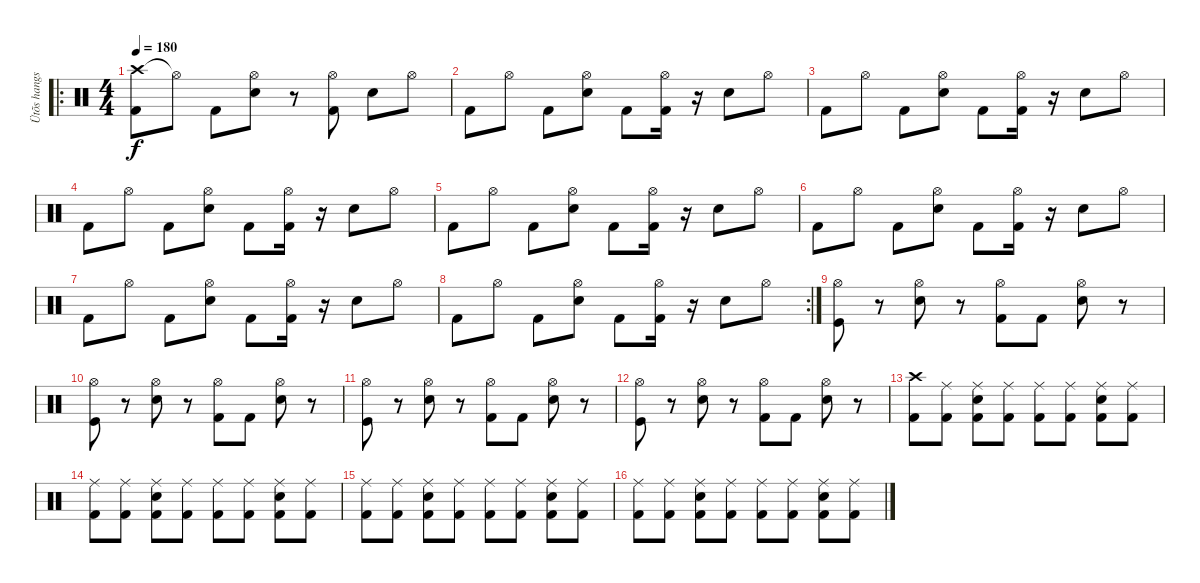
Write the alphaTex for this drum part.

\track ("Ütõs hangszer" "Ütõs hangs") {instrument percussion}
\staff {score}
\articulation defaults
\ro
\ts (4 4)
\tempo 180
\clef neutral
\ks c
("Crash high (hit)" "Kick (hit) 2").8{dy f} "Hi-Hat (open)"{t}.8 "Kick (hit) 2".8 ("Hi-Hat (open)" "Electric Snare (hit)").8 r.8 ("Hi-Hat (open)" "Kick (hit) 2").8 "Electric Snare (hit)".8 "Hi-Hat (open)".8 |
"Kick (hit) 2".8 "Hi-Hat (open)".8 "Kick (hit) 2".8 ("Hi-Hat (open)" "Electric Snare (hit)").8 "Kick (hit) 2".8 ("Hi-Hat (open)" "Kick (hit) 2").16 r.16 "Electric Snare (hit)".8 "Hi-Hat (open)".8 |
"Kick (hit) 2".8 "Hi-Hat (open)".8 "Kick (hit) 2".8 ("Hi-Hat (open)" "Electric Snare (hit)").8 "Kick (hit) 2".8 ("Hi-Hat (open)" "Kick (hit) 2").16 r.16 "Electric Snare (hit)".8 "Hi-Hat (open)".8 |
"Kick (hit) 2".8 "Hi-Hat (open)".8 "Kick (hit) 2".8 ("Hi-Hat (open)" "Electric Snare (hit)").8 "Kick (hit) 2".8 ("Hi-Hat (open)" "Kick (hit) 2").16 r.16 "Electric Snare (hit)".8 "Hi-Hat (open)".8 |
"Kick (hit) 2".8 "Hi-Hat (open)".8 "Kick (hit) 2".8 ("Hi-Hat (open)" "Electric Snare (hit)").8 "Kick (hit) 2".8 ("Hi-Hat (open)" "Kick (hit) 2").16 r.16 "Electric Snare (hit)".8 "Hi-Hat (open)".8 |
"Kick (hit) 2".8 "Hi-Hat (open)".8 "Kick (hit) 2".8 ("Hi-Hat (open)" "Electric Snare (hit)").8 "Kick (hit) 2".8 ("Hi-Hat (open)" "Kick (hit) 2").16 r.16 "Electric Snare (hit)".8 "Hi-Hat (open)".8 |
"Kick (hit) 2".8 "Hi-Hat (open)".8 "Kick (hit) 2".8 ("Hi-Hat (open)" "Electric Snare (hit)").8 "Kick (hit) 2".8 ("Hi-Hat (open)" "Kick (hit) 2").16 r.16 "Electric Snare (hit)".8 "Hi-Hat (open)".8 |
\rc 2 "Kick (hit) 2".8 "Hi-Hat (open)".8 "Kick (hit) 2".8
("Hi-Hat (open)" "Electric Snare (hit)").8 "Kick (hit) 2".8 ("Hi-Hat (open)" "Kick (hit) 2").16 r.16 "Electric Snare (hit)".8 "Hi-Hat (open)".8 |
("Hi-Hat (open)" "Kick (hit)").8 r.8 ("Hi-Hat (open)" "Electric Snare (hit)").8 r.8 ("Hi-Hat (open)" "Kick (hit) 2").8 "Kick (hit) 2".8 ("Hi-Hat (open)" "Electric Snare (hit)").8 r.8 |
("Hi-Hat (open)" "Kick (hit)").8 r.8 ("Hi-Hat (open)" "Electric Snare (hit)").8 r.8 ("Hi-Hat (open)" "Kick (hit) 2").8 "Kick (hit) 2".8 ("Hi-Hat (open)" "Electric Snare (hit)").8 r.8 |
("Hi-Hat (open)" "Kick (hit)").8 r.8 ("Hi-Hat (open)" "Electric Snare (hit)").8 r.8 ("Hi-Hat (open)" "Kick (hit) 2").8 "Kick (hit) 2".8 ("Hi-Hat (open)" "Electric Snare (hit)").8 r.8 |
("Hi-Hat (open)" "Kick (hit)").8 r.8 ("Hi-Hat (open)" "Electric Snare (hit)").8 r.8 ("Hi-Hat (open)" "Kick (hit) 2").8 "Kick (hit) 2".8 ("Hi-Hat (open)" "Electric Snare (hit)").8 r.8 |
("Crash high (hit)" "Kick (hit) 2").8 ("Ride (middle)" "Kick (hit) 2").8 ("Ride (middle)" "Electric Snare (hit)" "Kick (hit) 2").8 ("Ride (middle)" "Kick (hit) 2").8 ("Ride (middle)" "Kick (hit) 2").8 ("Ride (middle)" "Kick (hit) 2").8 ("Ride (middle)" "Electric Snare (hit)" "Kick (hit) 2").8 ("Ride (middle)" "Kick (hit) 2").8 |
("Ride (middle)" "Kick (hit) 2").8 ("Ride (middle)" "Kick (hit) 2").8 ("Ride (middle)" "Electric Snare (hit)" "Kick (hit) 2").8 ("Ride (middle)" "Kick (hit) 2").8 ("Ride (middle)" "Kick (hit) 2").8 ("Ride (middle)" "Kick (hit) 2").8 ("Ride (middle)" "Electric Snare (hit)" "Kick (hit) 2").8 ("Ride (middle)" "Kick (hit) 2").8 |
("Ride (middle)" "Kick (hit) 2").8 ("Ride (middle)" "Kick (hit) 2").8 ("Ride (middle)" "Electric Snare (hit)" "Kick (hit) 2").8 ("Ride (middle)" "Kick (hit) 2").8 ("Ride (middle)" "Kick (hit) 2").8 ("Ride (middle)" "Kick (hit) 2").8 ("Ride (middle)" "Electric Snare (hit)" "Kick (hit) 2").8 ("Ride (middle)" "Kick (hit) 2").8 |
("Ride (middle)" "Kick (hit) 2").8 ("Ride (middle)" "Kick (hit) 2").8 ("Ride (middle)" "Electric Snare (hit)" "Kick (hit) 2").8 ("Ride (middle)" "Kick (hit) 2").8 ("Ride (middle)" "Kick (hit) 2").8 ("Ride (middle)" "Kick (hit) 2").8 ("Ride (middle)" "Electric Snare (hit)" "Kick (hit) 2").8 ("Ride (middle)" "Kick (hit) 2").8
